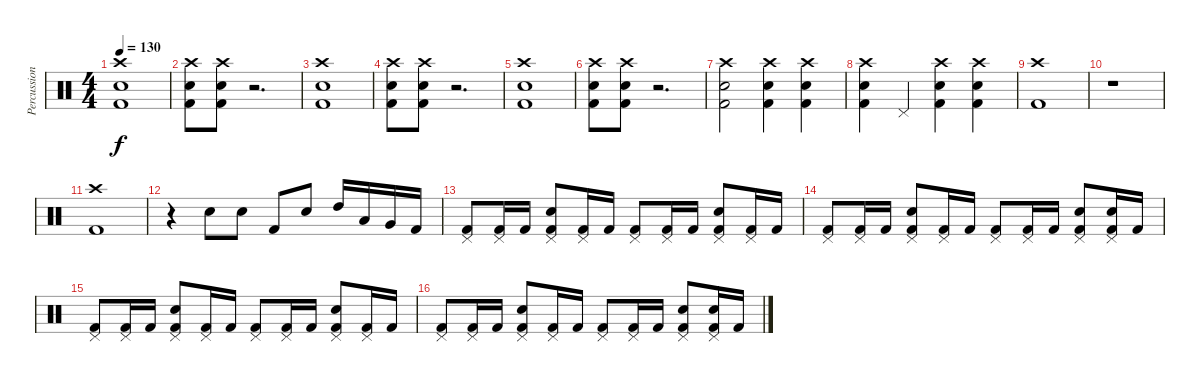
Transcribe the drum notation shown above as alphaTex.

\track ("Percussion" "Percussion") {instrument percussion}
\staff {score}
\articulation defaults
\ts (4 4)
\tempo 130
\clef neutral
\ks c
("Crash high (hit)" "Snare (hit) 2" "Kick (hit) 2").1{dy f} |
("Crash high (hit)" "Snare (hit) 2" "Kick (hit) 2").8 ("Crash high (hit)" "Snare (hit) 2" "Kick (hit) 2").8 r.2{d} |
("Crash high (hit)" "Snare (hit) 2" "Kick (hit) 2").1 |
("Crash high (hit)" "Snare (hit) 2" "Kick (hit) 2").8 ("Crash high (hit)" "Snare (hit) 2" "Kick (hit) 2").8 r.2{d} |
("Crash high (hit)" "Snare (hit) 2" "Kick (hit) 2").1 |
("Crash high (hit)" "Snare (hit) 2" "Kick (hit) 2").8 ("Crash high (hit)" "Snare (hit) 2" "Kick (hit) 2").8 r.2{d} |
("Crash high (hit)" "Snare (hit) 2" "Kick (hit) 2").2 ("Crash high (hit)" "Snare (hit) 2" "Kick (hit) 2").4 ("Crash high (hit)" "Snare (hit) 2" "Kick (hit) 2").4 |
("Crash high (hit)" "Snare (hit) 2" "Kick (hit) 2").4 "Pedal Hi-Hat (hit)".4 ("Crash high (hit)" "Snare (hit) 2" "Kick (hit) 2").4 ("Crash high (hit)" "Snare (hit) 2" "Kick (hit) 2").4 |
("Crash high (hit)" "Kick (hit) 2").1 |
r.1 |
("Crash high (hit)" "Kick (hit) 2").1 |
r.4 "Snare (hit) 2".8 "Snare (hit) 2".8 "Kick (hit) 2".8 "Snare (hit) 2".8 "High Tom (hit)".16 "Low Tom (hit)".16 "Very Low Tom (hit)".16 "Kick (hit) 2".16 |
("Pedal Hi-Hat (hit)" "Kick (hit) 2").8 ("Pedal Hi-Hat (hit)" "Kick (hit) 2").16 "Kick (hit) 2".16 ("Pedal Hi-Hat (hit)" "Snare (hit) 2" "Kick (hit) 2").8 ("Pedal Hi-Hat (hit)" "Kick (hit) 2").16 "Kick (hit) 2".16 ("Pedal Hi-Hat (hit)" "Kick (hit) 2").8 ("Pedal Hi-Hat (hit)" "Kick (hit) 2").16 "Kick (hit) 2".16 ("Pedal Hi-Hat (hit)" "Snare (hit) 2" "Kick (hit) 2").8 ("Pedal Hi-Hat (hit)" "Kick (hit) 2").16 "Kick (hit) 2".16 |
("Pedal Hi-Hat (hit)" "Kick (hit) 2").8 ("Pedal Hi-Hat (hit)" "Kick (hit) 2").16 "Kick (hit) 2".16 ("Pedal Hi-Hat (hit)" "Snare (hit) 2" "Kick (hit) 2").8 ("Pedal Hi-Hat (hit)" "Kick (hit) 2").16 "Kick (hit) 2".16 ("Pedal Hi-Hat (hit)" "Kick (hit) 2").8 ("Pedal Hi-Hat (hit)" "Kick (hit) 2").16 "Kick (hit) 2".16 ("Pedal Hi-Hat (hit)" "Snare (hit) 2" "Kick (hit) 2").8 ("Pedal Hi-Hat (hit)" "Snare (hit) 2" "Kick (hit) 2").16 "Kick (hit) 2".16 |
("Pedal Hi-Hat (hit)" "Kick (hit) 2").8 ("Pedal Hi-Hat (hit)" "Kick (hit) 2").16 "Kick (hit) 2".16 ("Pedal Hi-Hat (hit)" "Snare (hit) 2" "Kick (hit) 2").8 ("Pedal Hi-Hat (hit)" "Kick (hit) 2").16 "Kick (hit) 2".16 ("Pedal Hi-Hat (hit)" "Kick (hit) 2").8 ("Pedal Hi-Hat (hit)" "Kick (hit) 2").16 "Kick (hit) 2".16 ("Pedal Hi-Hat (hit)" "Snare (hit) 2" "Kick (hit) 2").8 ("Pedal Hi-Hat (hit)" "Kick (hit) 2").16 "Kick (hit) 2".16 |
("Pedal Hi-Hat (hit)" "Kick (hit) 2").8 ("Pedal Hi-Hat (hit)" "Kick (hit) 2").16 "Kick (hit) 2".16 ("Pedal Hi-Hat (hit)" "Snare (hit) 2" "Kick (hit) 2").8 ("Pedal Hi-Hat (hit)" "Kick (hit) 2").16 "Kick (hit) 2".16 ("Pedal Hi-Hat (hit)" "Kick (hit) 2").8 ("Pedal Hi-Hat (hit)" "Kick (hit) 2").16 "Kick (hit) 2".16 ("Pedal Hi-Hat (hit)" "Snare (hit) 2" "Kick (hit) 2").8 ("Pedal Hi-Hat (hit)" "Snare (hit) 2" "Kick (hit) 2").16 "Kick (hit) 2".16
